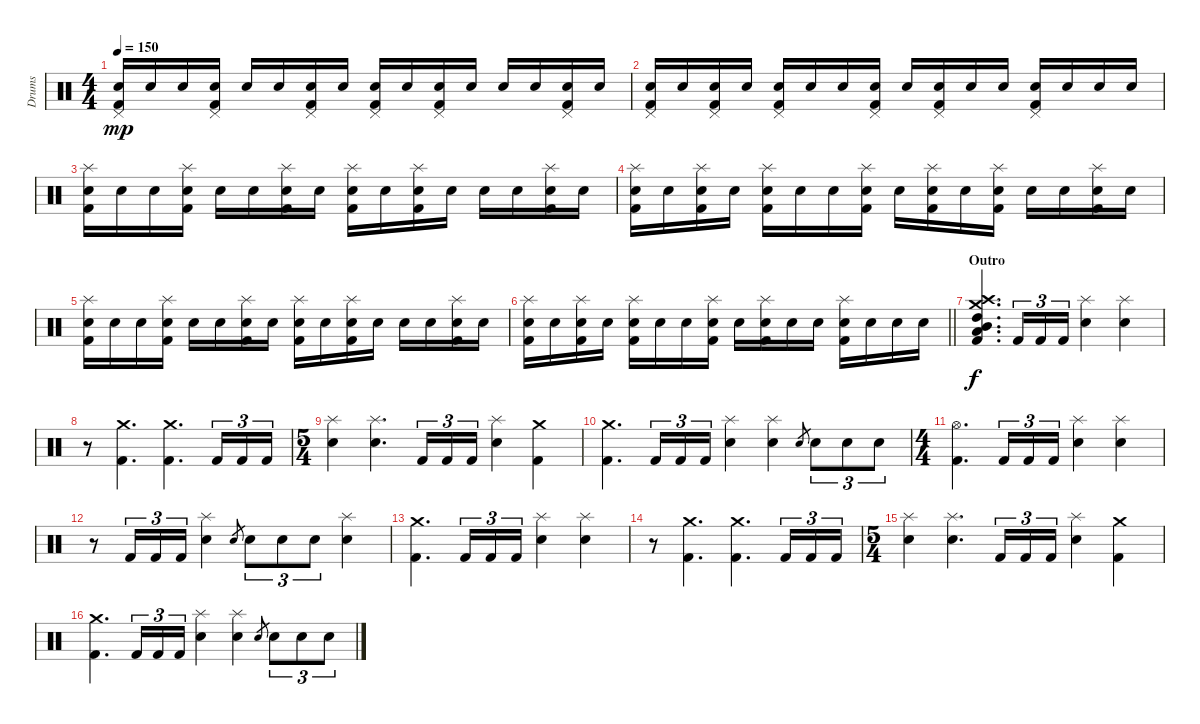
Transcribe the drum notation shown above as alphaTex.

\track ("Drums" "Drums") {instrument percussion}
\staff {score}
\articulation defaults
\ts (4 4)
\tempo 150
\clef neutral
\ks c
("Pedal Hi-Hat (hit)" "Electric Snare (hit)" "Kick (hit) 2").16{dy mp} "Electric Snare (hit)".16 "Electric Snare (hit)".16 ("Pedal Hi-Hat (hit)" "Electric Snare (hit)" "Kick (hit) 2").16 "Electric Snare (hit)".16 "Electric Snare (hit)".16 ("Pedal Hi-Hat (hit)" "Electric Snare (hit)" "Kick (hit) 2").16 "Electric Snare (hit)".16 ("Pedal Hi-Hat (hit)" "Electric Snare (hit)" "Kick (hit) 2").16 "Electric Snare (hit)".16 ("Pedal Hi-Hat (hit)" "Electric Snare (hit)" "Kick (hit) 2").16 "Electric Snare (hit)".16 "Electric Snare (hit)".16 "Electric Snare (hit)".16 ("Pedal Hi-Hat (hit)" "Electric Snare (hit)" "Kick (hit) 2").16 "Electric Snare (hit)".16 |
("Pedal Hi-Hat (hit)" "Electric Snare (hit)" "Kick (hit) 2").16 "Electric Snare (hit)".16 ("Pedal Hi-Hat (hit)" "Electric Snare (hit)" "Kick (hit) 2").16 "Electric Snare (hit)".16 ("Pedal Hi-Hat (hit)" "Electric Snare (hit)" "Kick (hit) 2").16 "Electric Snare (hit)".16 "Electric Snare (hit)".16 ("Pedal Hi-Hat (hit)" "Electric Snare (hit)" "Kick (hit) 2").16 "Electric Snare (hit)".16 ("Pedal Hi-Hat (hit)" "Electric Snare (hit)" "Kick (hit) 2").16 "Electric Snare (hit)".16 "Electric Snare (hit)".16 ("Pedal Hi-Hat (hit)" "Electric Snare (hit)" "Kick (hit) 2").16 "Electric Snare (hit)".16 "Electric Snare (hit)".16 "Electric Snare (hit)".16 |
("Splash (hit)" "Electric Snare (hit)" "Kick (hit) 2").16 "Electric Snare (hit)".16 "Electric Snare (hit)".16 ("Splash (hit)" "Electric Snare (hit)" "Kick (hit) 2").16 "Electric Snare (hit)".16 "Electric Snare (hit)".16 ("Splash (hit)" "Electric Snare (hit)" "Kick (hit) 2").16 "Electric Snare (hit)".16 ("Splash (hit)" "Electric Snare (hit)" "Kick (hit) 2").16 "Electric Snare (hit)".16 ("Splash (hit)" "Electric Snare (hit)" "Kick (hit) 2").16 "Electric Snare (hit)".16 "Electric Snare (hit)".16 "Electric Snare (hit)".16 ("Splash (hit)" "Electric Snare (hit)" "Kick (hit) 2").16 "Electric Snare (hit)".16 |
("Splash (hit)" "Electric Snare (hit)" "Kick (hit) 2").16 "Electric Snare (hit)".16 ("Splash (hit)" "Electric Snare (hit)" "Kick (hit) 2").16 "Electric Snare (hit)".16 ("Splash (hit)" "Electric Snare (hit)" "Kick (hit) 2").16 "Electric Snare (hit)".16 "Electric Snare (hit)".16 ("Splash (hit)" "Electric Snare (hit)" "Kick (hit) 2").16 "Electric Snare (hit)".16 ("Splash (hit)" "Electric Snare (hit)" "Kick (hit) 2").16 "Electric Snare (hit)".16 ("Splash (hit)" "Electric Snare (hit)" "Kick (hit) 2").16 "Electric Snare (hit)".16 "Electric Snare (hit)".16 ("Splash (hit)" "Electric Snare (hit)" "Kick (hit) 2").16 "Electric Snare (hit)".16 |
("Splash (hit)" "Electric Snare (hit)" "Kick (hit) 2").16 "Electric Snare (hit)".16 "Electric Snare (hit)".16 ("Splash (hit)" "Electric Snare (hit)" "Kick (hit) 2").16 "Electric Snare (hit)".16 "Electric Snare (hit)".16 ("Splash (hit)" "Electric Snare (hit)" "Kick (hit) 2").16 "Electric Snare (hit)".16 ("Splash (hit)" "Electric Snare (hit)" "Kick (hit) 2").16 "Electric Snare (hit)".16 ("Splash (hit)" "Electric Snare (hit)" "Kick (hit) 2").16 "Electric Snare (hit)".16 "Electric Snare (hit)".16 "Electric Snare (hit)".16 ("Splash (hit)" "Electric Snare (hit)" "Kick (hit) 2").16 "Electric Snare (hit)".16 |
\barLineRight lightlight
("Splash (hit)" "Electric Snare (hit)" "Kick (hit) 2").16 "Electric Snare (hit)".16 ("Splash (hit)" "Electric Snare (hit)" "Kick (hit) 2").16 "Electric Snare (hit)".16 ("Splash (hit)" "Electric Snare (hit)" "Kick (hit) 2").16 "Electric Snare (hit)".16 "Electric Snare (hit)".16 ("Splash (hit)" "Electric Snare (hit)" "Kick (hit) 2").16 "Electric Snare (hit)".16 ("Splash (hit)" "Electric Snare (hit)" "Kick (hit) 2").16 "Electric Snare (hit)".16 "Electric Snare (hit)".16 ("Splash (hit)" "Electric Snare (hit)" "Kick (hit) 2").16 "Electric Snare (hit)".16 "Electric Snare (hit)".16 "Electric Snare (hit)".16 |
\section ("" "Outro")
("Crash high (hit)" "Crash medium (hit)" "Mid Tom (hit)" "High Tom (hit)" "Low Tom (hit)" "Kick (hit) 2").4{d dy f} "Kick (hit) 2".16{tu (3 2)} "Kick (hit) 2".16{tu (3 2)} "Kick (hit) 2".16{tu (3 2)} ("Splash (hit)" "Electric Snare (hit)").4 ("Splash (hit)" "Electric Snare (hit)").4 |
r.8 ("Crash medium (hit)" "Kick (hit) 2").4{d} ("Crash medium (hit)" "Kick (hit) 2").4{d} "Kick (hit) 2".16{tu (3 2)} "Kick (hit) 2".16{tu (3 2)} "Kick (hit) 2".16{tu (3 2)} |
\ts (5 4)
("Splash (hit)" "Electric Snare (hit)").4 ("Splash (hit)" "Electric Snare (hit)").4{d} "Kick (hit) 2".16{tu (3 2)} "Kick (hit) 2".16{tu (3 2)} "Kick (hit) 2".16{tu (3 2)} ("Splash (hit)" "Electric Snare (hit)").4 ("Crash medium (hit)" "Kick (hit) 2").4 |
("Crash medium (hit)" "Kick (hit) 2").4{d} "Kick (hit) 2".16{tu (3 2)} "Kick (hit) 2".16{tu (3 2)} "Kick (hit) 2".16{tu (3 2)} ("Splash (hit)" "Electric Snare (hit)").4 ("Splash (hit)" "Electric Snare (hit)").4 "Electric Snare (hit)".8{gr} "Electric Snare (hit)".8{tu (3 2)} "Electric Snare (hit)".8{tu (3 2)} "Electric Snare (hit)".8{tu (3 2)} |
\ts (4 4)
("Hi-Hat (open)" "Kick (hit) 2").4{d} "Kick (hit) 2".16{tu (3 2)} "Kick (hit) 2".16{tu (3 2)} "Kick (hit) 2".16{tu (3 2)} ("Splash (hit)" "Electric Snare (hit)").4 ("Splash (hit)" "Electric Snare (hit)").4 |
r.8 "Kick (hit) 2".16{tu (3 2)} "Kick (hit) 2".16{tu (3 2)} "Kick (hit) 2".16{tu (3 2)} ("Splash (hit)" "Electric Snare (hit)").4 "Electric Snare (hit)".8{gr} "Electric Snare (hit)".8{tu (3 2)} "Electric Snare (hit)".8{tu (3 2)} "Electric Snare (hit)".8{tu (3 2)} ("Splash (hit)" "Electric Snare (hit)").4 |
("Crash medium (hit)" "Kick (hit) 2").4{d} "Kick (hit) 2".16{tu (3 2)} "Kick (hit) 2".16{tu (3 2)} "Kick (hit) 2".16{tu (3 2)} ("Splash (hit)" "Electric Snare (hit)").4 ("Splash (hit)" "Electric Snare (hit)").4 |
r.8 ("Crash medium (hit)" "Kick (hit) 2").4{d} ("Crash medium (hit)" "Kick (hit) 2").4{d} "Kick (hit) 2".16{tu (3 2)} "Kick (hit) 2".16{tu (3 2)} "Kick (hit) 2".16{tu (3 2)} |
\ts (5 4)
("Splash (hit)" "Electric Snare (hit)").4 ("Splash (hit)" "Electric Snare (hit)").4{d} "Kick (hit) 2".16{tu (3 2)} "Kick (hit) 2".16{tu (3 2)} "Kick (hit) 2".16{tu (3 2)} ("Splash (hit)" "Electric Snare (hit)").4 ("Crash medium (hit)" "Kick (hit) 2").4 |
("Crash medium (hit)" "Kick (hit) 2").4{d} "Kick (hit) 2".16{tu (3 2)} "Kick (hit) 2".16{tu (3 2)} "Kick (hit) 2".16{tu (3 2)} ("Splash (hit)" "Electric Snare (hit)").4 ("Splash (hit)" "Electric Snare (hit)").4 "Electric Snare (hit)".8{gr} "Electric Snare (hit)".8{tu (3 2)} "Electric Snare (hit)".8{tu (3 2)} "Electric Snare (hit)".8{tu (3 2)}
